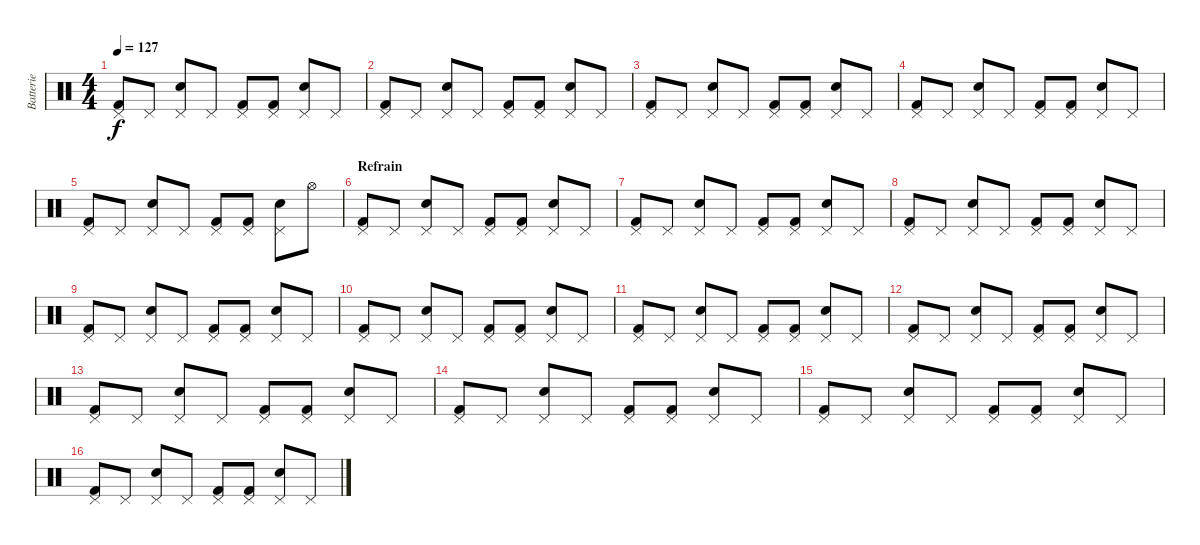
\track ("Batterie" "Batterie") {instrument percussion}
\staff {score}
\articulation defaults
\ts (4 4)
\tempo 127
\clef neutral
\ks c
("Pedal Hi-Hat (hit)" "Kick (hit) 2").8{dy f} "Pedal Hi-Hat (hit)".8 ("Pedal Hi-Hat (hit)" "Electric Snare (hit)").8 "Pedal Hi-Hat (hit)".8 ("Pedal Hi-Hat (hit)" "Kick (hit) 2").8 ("Pedal Hi-Hat (hit)" "Kick (hit) 2").8 ("Pedal Hi-Hat (hit)" "Electric Snare (hit)").8 "Pedal Hi-Hat (hit)".8 |
("Pedal Hi-Hat (hit)" "Kick (hit) 2").8 "Pedal Hi-Hat (hit)".8 ("Pedal Hi-Hat (hit)" "Electric Snare (hit)").8 "Pedal Hi-Hat (hit)".8 ("Pedal Hi-Hat (hit)" "Kick (hit) 2").8 ("Pedal Hi-Hat (hit)" "Kick (hit) 2").8 ("Pedal Hi-Hat (hit)" "Electric Snare (hit)").8 "Pedal Hi-Hat (hit)".8 |
("Pedal Hi-Hat (hit)" "Kick (hit) 2").8 "Pedal Hi-Hat (hit)".8 ("Pedal Hi-Hat (hit)" "Electric Snare (hit)").8 "Pedal Hi-Hat (hit)".8 ("Pedal Hi-Hat (hit)" "Kick (hit) 2").8 ("Pedal Hi-Hat (hit)" "Kick (hit) 2").8 ("Pedal Hi-Hat (hit)" "Electric Snare (hit)").8 "Pedal Hi-Hat (hit)".8 |
("Pedal Hi-Hat (hit)" "Kick (hit) 2").8 "Pedal Hi-Hat (hit)".8 ("Pedal Hi-Hat (hit)" "Electric Snare (hit)").8 "Pedal Hi-Hat (hit)".8 ("Pedal Hi-Hat (hit)" "Kick (hit) 2").8 ("Pedal Hi-Hat (hit)" "Kick (hit) 2").8 ("Pedal Hi-Hat (hit)" "Electric Snare (hit)").8 "Pedal Hi-Hat (hit)".8 |
("Pedal Hi-Hat (hit)" "Kick (hit) 2").8 "Pedal Hi-Hat (hit)".8 ("Pedal Hi-Hat (hit)" "Electric Snare (hit)").8 "Pedal Hi-Hat (hit)".8 ("Pedal Hi-Hat (hit)" "Kick (hit) 2").8 ("Pedal Hi-Hat (hit)" "Kick (hit) 2").8 ("Pedal Hi-Hat (hit)" "Electric Snare (hit)").8 "Hi-Hat (open)".8 |
\section ("" "Refrain")
("Pedal Hi-Hat (hit)" "Kick (hit) 2").8 "Pedal Hi-Hat (hit)".8 ("Pedal Hi-Hat (hit)" "Electric Snare (hit)").8 "Pedal Hi-Hat (hit)".8 ("Pedal Hi-Hat (hit)" "Kick (hit) 2").8 ("Pedal Hi-Hat (hit)" "Kick (hit) 2").8 ("Pedal Hi-Hat (hit)" "Electric Snare (hit)").8 "Pedal Hi-Hat (hit)".8 |
("Pedal Hi-Hat (hit)" "Kick (hit) 2").8 "Pedal Hi-Hat (hit)".8 ("Pedal Hi-Hat (hit)" "Electric Snare (hit)").8 "Pedal Hi-Hat (hit)".8 ("Pedal Hi-Hat (hit)" "Kick (hit) 2").8 ("Pedal Hi-Hat (hit)" "Kick (hit) 2").8 ("Pedal Hi-Hat (hit)" "Electric Snare (hit)").8 "Pedal Hi-Hat (hit)".8 |
("Pedal Hi-Hat (hit)" "Kick (hit) 2").8 "Pedal Hi-Hat (hit)".8 ("Pedal Hi-Hat (hit)" "Electric Snare (hit)").8 "Pedal Hi-Hat (hit)".8 ("Pedal Hi-Hat (hit)" "Kick (hit) 2").8 ("Pedal Hi-Hat (hit)" "Kick (hit) 2").8 ("Pedal Hi-Hat (hit)" "Electric Snare (hit)").8 "Pedal Hi-Hat (hit)".8 |
("Pedal Hi-Hat (hit)" "Kick (hit) 2").8 "Pedal Hi-Hat (hit)".8 ("Pedal Hi-Hat (hit)" "Electric Snare (hit)").8 "Pedal Hi-Hat (hit)".8 ("Pedal Hi-Hat (hit)" "Kick (hit) 2").8 ("Pedal Hi-Hat (hit)" "Kick (hit) 2").8 ("Pedal Hi-Hat (hit)" "Electric Snare (hit)").8 "Pedal Hi-Hat (hit)".8 |
("Pedal Hi-Hat (hit)" "Kick (hit) 2").8 "Pedal Hi-Hat (hit)".8 ("Pedal Hi-Hat (hit)" "Electric Snare (hit)").8 "Pedal Hi-Hat (hit)".8 ("Pedal Hi-Hat (hit)" "Kick (hit) 2").8 ("Pedal Hi-Hat (hit)" "Kick (hit) 2").8 ("Pedal Hi-Hat (hit)" "Electric Snare (hit)").8 "Pedal Hi-Hat (hit)".8 |
("Pedal Hi-Hat (hit)" "Kick (hit) 2").8 "Pedal Hi-Hat (hit)".8 ("Pedal Hi-Hat (hit)" "Electric Snare (hit)").8 "Pedal Hi-Hat (hit)".8 ("Pedal Hi-Hat (hit)" "Kick (hit) 2").8 ("Pedal Hi-Hat (hit)" "Kick (hit) 2").8 ("Pedal Hi-Hat (hit)" "Electric Snare (hit)").8 "Pedal Hi-Hat (hit)".8 |
("Pedal Hi-Hat (hit)" "Kick (hit) 2").8 "Pedal Hi-Hat (hit)".8 ("Pedal Hi-Hat (hit)" "Electric Snare (hit)").8 "Pedal Hi-Hat (hit)".8 ("Pedal Hi-Hat (hit)" "Kick (hit) 2").8 ("Pedal Hi-Hat (hit)" "Kick (hit) 2").8 ("Pedal Hi-Hat (hit)" "Electric Snare (hit)").8 "Pedal Hi-Hat (hit)".8 |
("Pedal Hi-Hat (hit)" "Kick (hit) 2").8 "Pedal Hi-Hat (hit)".8 ("Pedal Hi-Hat (hit)" "Electric Snare (hit)").8 "Pedal Hi-Hat (hit)".8 ("Pedal Hi-Hat (hit)" "Kick (hit) 2").8 ("Pedal Hi-Hat (hit)" "Kick (hit) 2").8 ("Pedal Hi-Hat (hit)" "Electric Snare (hit)").8 "Pedal Hi-Hat (hit)".8 |
("Pedal Hi-Hat (hit)" "Kick (hit) 2").8 "Pedal Hi-Hat (hit)".8 ("Pedal Hi-Hat (hit)" "Electric Snare (hit)").8 "Pedal Hi-Hat (hit)".8 ("Pedal Hi-Hat (hit)" "Kick (hit) 2").8 ("Pedal Hi-Hat (hit)" "Kick (hit) 2").8 ("Pedal Hi-Hat (hit)" "Electric Snare (hit)").8 "Pedal Hi-Hat (hit)".8 |
("Pedal Hi-Hat (hit)" "Kick (hit) 2").8 "Pedal Hi-Hat (hit)".8 ("Pedal Hi-Hat (hit)" "Electric Snare (hit)").8 "Pedal Hi-Hat (hit)".8 ("Pedal Hi-Hat (hit)" "Kick (hit) 2").8 ("Pedal Hi-Hat (hit)" "Kick (hit) 2").8 ("Pedal Hi-Hat (hit)" "Electric Snare (hit)").8 "Pedal Hi-Hat (hit)".8 |
("Pedal Hi-Hat (hit)" "Kick (hit) 2").8 "Pedal Hi-Hat (hit)".8 ("Pedal Hi-Hat (hit)" "Electric Snare (hit)").8 "Pedal Hi-Hat (hit)".8 ("Pedal Hi-Hat (hit)" "Kick (hit) 2").8 ("Pedal Hi-Hat (hit)" "Kick (hit) 2").8 ("Pedal Hi-Hat (hit)" "Electric Snare (hit)").8 "Pedal Hi-Hat (hit)".8
